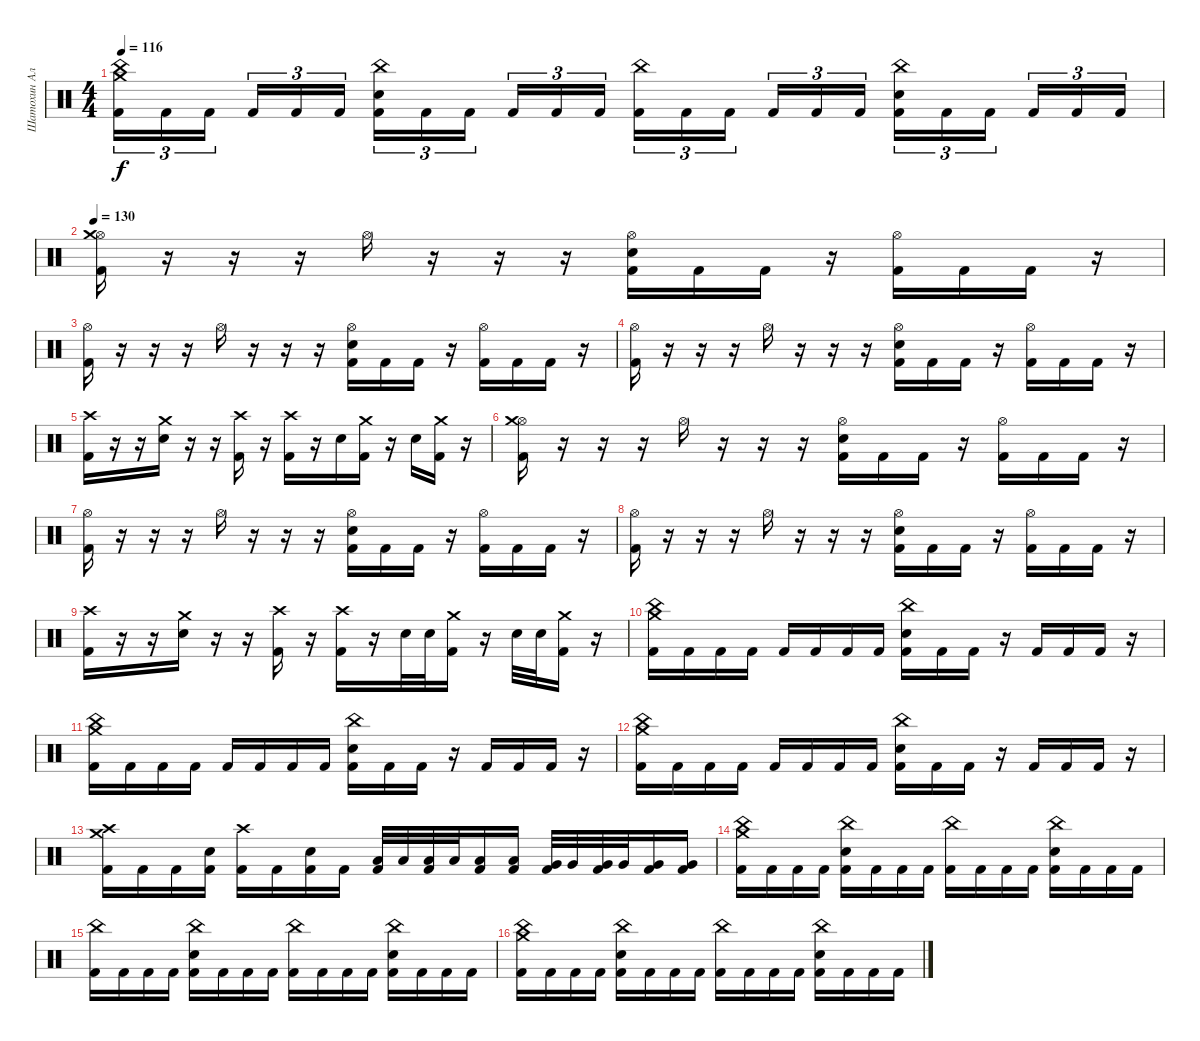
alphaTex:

\track ("Шатохин Алексей" "Шатохин Ал") {instrument percussion}
\staff {score}
\articulation defaults
\ts (4 4)
\tempo 116
\clef neutral
\ks c
("China (hit)" "Crash medium (hit)" "Kick (hit) 2").16{tu (3 2) dy f} "Kick (hit) 2".16{tu (3 2)} "Kick (hit) 2".16{tu (3 2) beam splitsecondary} "Kick (hit) 2".16{tu (3 2)} "Kick (hit) 2".16{tu (3 2)} "Kick (hit) 2".16{tu (3 2)} ("China (hit)" "Electric Snare (hit)" "Kick (hit) 2").16{tu (3 2)} "Kick (hit) 2".16{tu (3 2)} "Kick (hit) 2".16{tu (3 2) beam splitsecondary} "Kick (hit) 2".16{tu (3 2)} "Kick (hit) 2".16{tu (3 2)} "Kick (hit) 2".16{tu (3 2)} ("China (hit)" "Kick (hit) 2").16{tu (3 2)} "Kick (hit) 2".16{tu (3 2)} "Kick (hit) 2".16{tu (3 2) beam splitsecondary} "Kick (hit) 2".16{tu (3 2)} "Kick (hit) 2".16{tu (3 2)} "Kick (hit) 2".16{tu (3 2)} ("China (hit)" "Electric Snare (hit)" "Kick (hit) 2").16{tu (3 2)} "Kick (hit) 2".16{tu (3 2)} "Kick (hit) 2".16{tu (3 2) beam splitsecondary} "Kick (hit) 2".16{tu (3 2)} "Kick (hit) 2".16{tu (3 2)} "Kick (hit) 2".16{tu (3 2)} |
\tempo 130
("Hi-Hat (open)" "Crash medium (hit)" "Kick (hit) 2").16 r.16 r.16 r.16 "Hi-Hat (open)".16 r.16 r.16 r.16 ("Hi-Hat (open)" "Electric Snare (hit)" "Kick (hit) 2").16 "Kick (hit) 2".16 "Kick (hit) 2".16 r.16 ("Hi-Hat (open)" "Kick (hit) 2").16 "Kick (hit) 2".16 "Kick (hit) 2".16 r.16 |
("Hi-Hat (open)" "Kick (hit) 2").16 r.16 r.16 r.16 "Hi-Hat (open)".16 r.16 r.16 r.16 ("Hi-Hat (open)" "Electric Snare (hit)" "Kick (hit) 2").16 "Kick (hit) 2".16 "Kick (hit) 2".16 r.16 ("Hi-Hat (open)" "Kick (hit) 2").16 "Kick (hit) 2".16 "Kick (hit) 2".16 r.16 |
("Hi-Hat (open)" "Kick (hit) 2").16 r.16 r.16 r.16 "Hi-Hat (open)".16 r.16 r.16 r.16 ("Hi-Hat (open)" "Electric Snare (hit)" "Kick (hit) 2").16 "Kick (hit) 2".16 "Kick (hit) 2".16 r.16 ("Hi-Hat (open)" "Kick (hit) 2").16 "Kick (hit) 2".16 "Kick (hit) 2".16 r.16 |
("Crash high (hit)" "Kick (hit) 2").16 r.16 r.16 ("Crash medium (hit)" "Electric Snare (hit)").16 r.16 r.16 ("Crash high (hit)" "Kick (hit) 2").16 r.16 ("Crash high (hit)" "Kick (hit) 2").16 r.16 "Electric Snare (hit)".16 ("Crash medium (hit)" "Kick (hit) 2").16 r.16 "Electric Snare (hit)".16 ("Crash medium (hit)" "Kick (hit) 2").16 r.16 |
("Hi-Hat (open)" "Crash medium (hit)" "Kick (hit) 2").16 r.16 r.16 r.16 "Hi-Hat (open)".16 r.16 r.16 r.16 ("Hi-Hat (open)" "Electric Snare (hit)" "Kick (hit) 2").16 "Kick (hit) 2".16 "Kick (hit) 2".16 r.16 ("Hi-Hat (open)" "Kick (hit) 2").16 "Kick (hit) 2".16 "Kick (hit) 2".16 r.16 |
("Hi-Hat (open)" "Kick (hit) 2").16 r.16 r.16 r.16 "Hi-Hat (open)".16 r.16 r.16 r.16 ("Hi-Hat (open)" "Electric Snare (hit)" "Kick (hit) 2").16 "Kick (hit) 2".16 "Kick (hit) 2".16 r.16 ("Hi-Hat (open)" "Kick (hit) 2").16 "Kick (hit) 2".16 "Kick (hit) 2".16 r.16 |
("Hi-Hat (open)" "Kick (hit) 2").16 r.16 r.16 r.16 "Hi-Hat (open)".16 r.16 r.16 r.16 ("Hi-Hat (open)" "Electric Snare (hit)" "Kick (hit) 2").16 "Kick (hit) 2".16 "Kick (hit) 2".16 r.16 ("Hi-Hat (open)" "Kick (hit) 2").16 "Kick (hit) 2".16 "Kick (hit) 2".16 r.16 |
("Crash high (hit)" "Kick (hit) 2").16 r.16 r.16 ("Crash medium (hit)" "Electric Snare (hit)").16 r.16 r.16 ("Crash high (hit)" "Kick (hit) 2").16 r.16 ("Crash high (hit)" "Kick (hit) 2").16 r.16 "Electric Snare (hit)".32 "Electric Snare (hit)".32 ("Crash medium (hit)" "Kick (hit) 2").16 r.16 "Electric Snare (hit)".32 "Electric Snare (hit)".32 ("Crash medium (hit)" "Kick (hit) 2").16 r.16 |
("China (hit)" "Crash medium (hit)" "Kick (hit) 2").16 "Kick (hit) 2".16 "Kick (hit) 2".16 "Kick (hit) 2".16 "Kick (hit) 2".16 "Kick (hit) 2".16 "Kick (hit) 2".16 "Kick (hit) 2".16 ("China (hit)" "Electric Snare (hit)" "Kick (hit) 2").16 "Kick (hit) 2".16 "Kick (hit) 2".16 r.16 "Kick (hit) 2".16 "Kick (hit) 2".16 "Kick (hit) 2".16 r.16 |
("China (hit)" "Crash medium (hit)" "Kick (hit) 2").16 "Kick (hit) 2".16 "Kick (hit) 2".16 "Kick (hit) 2".16 "Kick (hit) 2".16 "Kick (hit) 2".16 "Kick (hit) 2".16 "Kick (hit) 2".16 ("China (hit)" "Electric Snare (hit)" "Kick (hit) 2").16 "Kick (hit) 2".16 "Kick (hit) 2".16 r.16 "Kick (hit) 2".16 "Kick (hit) 2".16 "Kick (hit) 2".16 r.16 |
("China (hit)" "Crash medium (hit)" "Kick (hit) 2").16 "Kick (hit) 2".16 "Kick (hit) 2".16 "Kick (hit) 2".16 "Kick (hit) 2".16 "Kick (hit) 2".16 "Kick (hit) 2".16 "Kick (hit) 2".16 ("China (hit)" "Electric Snare (hit)" "Kick (hit) 2").16 "Kick (hit) 2".16 "Kick (hit) 2".16 r.16 "Kick (hit) 2".16 "Kick (hit) 2".16 "Kick (hit) 2".16 r.16 |
("Crash medium (hit)" "Crash high (hit)" "Kick (hit) 2").16 "Kick (hit) 2".16 "Kick (hit) 2".16 ("Electric Snare (hit)" "Kick (hit) 2").16 ("Crash high (hit)" "Kick (hit) 2").16 "Kick (hit) 2".16 ("Electric Snare (hit)" "Kick (hit) 2").16 "Kick (hit) 2".16 ("Low Tom (hit)" "Kick (hit) 2").32 "Low Tom (hit)".32 ("Low Tom (hit)" "Kick (hit) 2").32 "Low Tom (hit)".32 ("Low Tom (hit)" "Kick (hit) 2").16 ("Low Tom (hit)" "Kick (hit) 2").16 ("Very Low Tom (hit)" "Kick (hit) 2").32 "Very Low Tom (hit)".32 ("Very Low Tom (hit)" "Kick (hit) 2").32 "Very Low Tom (hit)".32 ("Very Low Tom (hit)" "Kick (hit) 2").16 ("Very Low Tom (hit)" "Kick (hit) 2").16 |
("China (hit)" "Crash medium (hit)" "Kick (hit) 2").16 "Kick (hit) 2".16 "Kick (hit) 2".16 "Kick (hit) 2".16 ("China (hit)" "Electric Snare (hit)" "Kick (hit) 2").16 "Kick (hit) 2".16 "Kick (hit) 2".16 "Kick (hit) 2".16 ("China (hit)" "Kick (hit) 2").16 "Kick (hit) 2".16 "Kick (hit) 2".16 "Kick (hit) 2".16 ("China (hit)" "Electric Snare (hit)" "Kick (hit) 2").16 "Kick (hit) 2".16 "Kick (hit) 2".16 "Kick (hit) 2".16 |
("China (hit)" "Kick (hit) 2").16 "Kick (hit) 2".16 "Kick (hit) 2".16 "Kick (hit) 2".16 ("China (hit)" "Electric Snare (hit)" "Kick (hit) 2").16 "Kick (hit) 2".16 "Kick (hit) 2".16 "Kick (hit) 2".16 ("China (hit)" "Kick (hit) 2").16 "Kick (hit) 2".16 "Kick (hit) 2".16 "Kick (hit) 2".16 ("China (hit)" "Electric Snare (hit)" "Kick (hit) 2").16 "Kick (hit) 2".16 "Kick (hit) 2".16 "Kick (hit) 2".16 |
("China (hit)" "Crash medium (hit)" "Kick (hit) 2").16 "Kick (hit) 2".16 "Kick (hit) 2".16 "Kick (hit) 2".16 ("China (hit)" "Electric Snare (hit)" "Kick (hit) 2").16 "Kick (hit) 2".16 "Kick (hit) 2".16 "Kick (hit) 2".16 ("China (hit)" "Kick (hit) 2").16 "Kick (hit) 2".16 "Kick (hit) 2".16 "Kick (hit) 2".16 ("China (hit)" "Electric Snare (hit)" "Kick (hit) 2").16 "Kick (hit) 2".16 "Kick (hit) 2".16 "Kick (hit) 2".16
